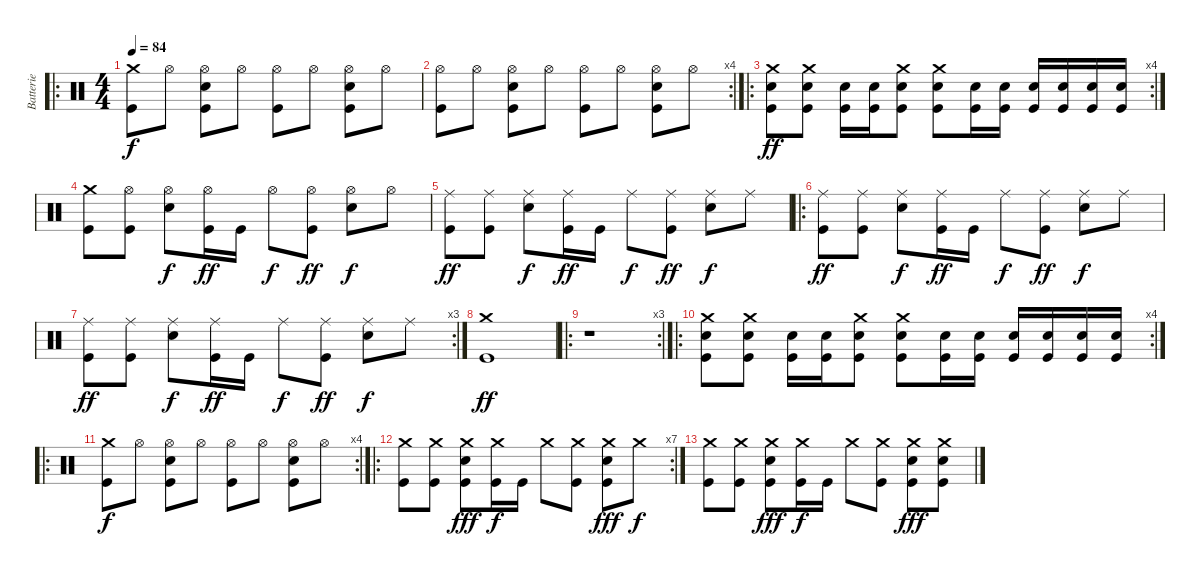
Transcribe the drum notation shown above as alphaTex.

\track ("Batterie" "Batterie") {instrument percussion}
\staff {score}
\articulation defaults
\ro
\ts (4 4)
\tempo 84
\clef neutral
\ks c
("Crash medium (hit)" "Kick (hit)").8{dy f} "Hi-Hat (open)".8 ("Hi-Hat (open)" "Electric Snare (hit)" "Kick (hit)").8 "Hi-Hat (open)".8 ("Hi-Hat (open)" "Kick (hit)").8 "Hi-Hat (open)".8 ("Hi-Hat (open)" "Electric Snare (hit)" "Kick (hit)").8 "Hi-Hat (open)".8 |
\rc 4
("Hi-Hat (open)" "Kick (hit)").8 "Hi-Hat (open)".8 ("Hi-Hat (open)" "Electric Snare (hit)" "Kick (hit)").8 "Hi-Hat (open)".8 ("Hi-Hat (open)" "Kick (hit)").8 "Hi-Hat (open)".8 ("Hi-Hat (open)" "Electric Snare (hit)" "Kick (hit)").8 "Hi-Hat (open)".8 |
\ro
\rc 4
("Crash medium (hit)" "Electric Snare (hit)" "Kick (hit)").8{dy ff} ("Crash medium (hit)" "Electric Snare (hit)" "Kick (hit)").8 ("Electric Snare (hit)" "Kick (hit)").16 ("Electric Snare (hit)" "Kick (hit)").16 ("Crash medium (hit)" "Electric Snare (hit)" "Kick (hit)").8 ("Crash medium (hit)" "Electric Snare (hit)" "Kick (hit)").8 ("Electric Snare (hit)" "Kick (hit)").16 ("Electric Snare (hit)" "Kick (hit)").16 ("Electric Snare (hit)" "Kick (hit)").16 ("Electric Snare (hit)" "Kick (hit)").16 ("Electric Snare (hit)" "Kick (hit)").16 ("Electric Snare (hit)" "Kick (hit)").16 |
("Crash medium (hit)" "Kick (hit)").8 ("Hi-Hat (open)" "Kick (hit)").8 ("Hi-Hat (open)" "Electric Snare (hit)").8{dy f} ("Hi-Hat (open)" "Kick (hit)").16{dy ff} "Kick (hit)".16 "Hi-Hat (open)".8{dy f} ("Hi-Hat (open)" "Kick (hit)").8{dy ff} ("Hi-Hat (open)" "Electric Snare (hit)").8{dy f} "Hi-Hat (open)".8 |
("Ride (middle)" "Kick (hit)").8{dy ff} ("Ride (middle)" "Kick (hit)").8 ("Ride (middle)" "Electric Snare (hit)").8{dy f} ("Ride (middle)" "Kick (hit)").16{dy ff} "Kick (hit)".16 "Ride (middle)".8{dy f} ("Ride (middle)" "Kick (hit)").8{dy ff} ("Ride (middle)" "Electric Snare (hit)").8{dy f} "Ride (middle)".8 |
\ro
("Ride (middle)" "Kick (hit)").8{dy ff} ("Ride (middle)" "Kick (hit)").8 ("Ride (middle)" "Electric Snare (hit)").8{dy f} ("Ride (middle)" "Kick (hit)").16{dy ff} "Kick (hit)".16 "Ride (middle)".8{dy f} ("Ride (middle)" "Kick (hit)").8{dy ff} ("Ride (middle)" "Electric Snare (hit)").8{dy f} "Ride (middle)".8 |
\rc 3
("Ride (middle)" "Kick (hit)").8{dy ff} ("Ride (middle)" "Kick (hit)").8 ("Ride (middle)" "Electric Snare (hit)").8{dy f} ("Ride (middle)" "Kick (hit)").16{dy ff} "Kick (hit)".16 "Ride (middle)".8{dy f} ("Ride (middle)" "Kick (hit)").8{dy ff} ("Ride (middle)" "Electric Snare (hit)").8{dy f} "Ride (middle)".8 |
("Crash medium (hit)" "Kick (hit)").1{dy ff} |
\ro
\rc 3
r.1 |
\ro
\rc 4
("Crash medium (hit)" "Electric Snare (hit)" "Kick (hit)").8 ("Crash medium (hit)" "Electric Snare (hit)" "Kick (hit)").8 ("Electric Snare (hit)" "Kick (hit)").16 ("Electric Snare (hit)" "Kick (hit)").16 ("Crash medium (hit)" "Electric Snare (hit)" "Kick (hit)").8 ("Crash medium (hit)" "Electric Snare (hit)" "Kick (hit)").8 ("Electric Snare (hit)" "Kick (hit)").16 ("Electric Snare (hit)" "Kick (hit)").16 ("Electric Snare (hit)" "Kick (hit)").16 ("Electric Snare (hit)" "Kick (hit)").16 ("Electric Snare (hit)" "Kick (hit)").16 ("Electric Snare (hit)" "Kick (hit)").16 |
\ro
\rc 4
("Crash medium (hit)" "Kick (hit)").8{dy f} "Hi-Hat (open)".8 ("Hi-Hat (open)" "Electric Snare (hit)" "Kick (hit)").8 "Hi-Hat (open)".8 ("Hi-Hat (open)" "Kick (hit)").8 "Hi-Hat (open)".8 ("Hi-Hat (open)" "Electric Snare (hit)" "Kick (hit)").8 "Hi-Hat (open)".8 |
\ro
\rc 7
("Crash medium (hit)" "Kick (hit)").8 ("Crash medium (hit)" "Kick (hit)").8 ("Crash medium (hit)" "Electric Snare (hit)" "Kick (hit)").8{dy fff} ("Crash medium (hit)" "Kick (hit)").16{dy f} "Kick (hit)".16 "Crash medium (hit)".8 ("Crash medium (hit)" "Kick (hit)").8 ("Crash medium (hit)" "Electric Snare (hit)" "Kick (hit)").8{dy fff} "Crash medium (hit)".8{dy f} |
("Crash medium (hit)" "Kick (hit)").8 ("Crash medium (hit)" "Kick (hit)").8 ("Crash medium (hit)" "Electric Snare (hit)" "Kick (hit)").8{dy fff} ("Crash medium (hit)" "Kick (hit)").16{dy f} "Kick (hit)".16 "Crash medium (hit)".8 ("Crash medium (hit)" "Kick (hit)").8 ("Crash medium (hit)" "Electric Snare (hit)" "Kick (hit)").8{dy fff} ("Crash medium (hit)" "Electric Snare (hit)" "Kick (hit)").8
